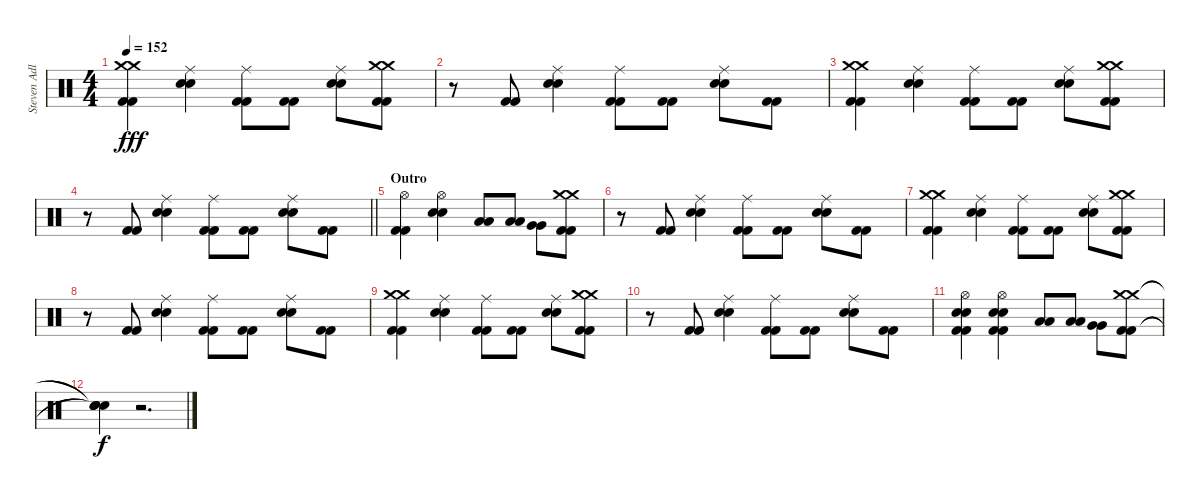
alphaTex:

\track ("Steven Adler" "Steven Adl") {instrument percussion}
\staff {score}
\articulation defaults
\ts (4 4)
\tempo 152
\clef neutral
\ks c
("Crash medium (hit)" "Crash medium (hit)" "Kick (hit) 2" "Kick (hit) 2").4{dy fff} ("Ride (middle)" "Electric Snare (hit)" "Electric Snare (hit)").4 ("Ride (middle)" "Kick (hit) 2" "Kick (hit) 2").8 ("Kick (hit) 2" "Kick (hit) 2").8 ("Ride (middle)" "Electric Snare (hit)" "Electric Snare (hit)").8 ("Crash medium (hit)" "Crash medium (hit)" "Kick (hit) 2" "Kick (hit) 2").8 |
r.8 ("Kick (hit) 2" "Kick (hit) 2").8 ("Ride (middle)" "Electric Snare (hit)" "Electric Snare (hit)").4 ("Ride (middle)" "Kick (hit) 2" "Kick (hit) 2").8 ("Kick (hit) 2" "Kick (hit) 2").8 ("Ride (middle)" "Electric Snare (hit)" "Electric Snare (hit)").8 ("Kick (hit) 2" "Kick (hit) 2").8 |
("Crash medium (hit)" "Crash medium (hit)" "Kick (hit) 2" "Kick (hit) 2").4 ("Ride (middle)" "Electric Snare (hit)" "Electric Snare (hit)").4 ("Ride (middle)" "Kick (hit) 2" "Kick (hit) 2").8 ("Kick (hit) 2" "Kick (hit) 2").8 ("Ride (middle)" "Electric Snare (hit)" "Electric Snare (hit)").8 ("Crash medium (hit)" "Crash medium (hit)" "Kick (hit) 2" "Kick (hit) 2").8 |
\barLineRight lightlight
r.8 ("Kick (hit) 2" "Kick (hit) 2").8 ("Ride (middle)" "Electric Snare (hit)" "Electric Snare (hit)").4 ("Ride (middle)" "Kick (hit) 2" "Kick (hit) 2").8 ("Kick (hit) 2" "Kick (hit) 2").8 ("Ride (middle)" "Electric Snare (hit)" "Electric Snare (hit)").8 ("Kick (hit) 2" "Kick (hit) 2").8 |
\section ("" "Outro")
("Hi-Hat (open)" "Kick (hit) 2" "Kick (hit) 2").4 ("Hi-Hat (open)" "Electric Snare (hit)" "Electric Snare (hit)").4 ("Low Tom (hit)" "Low Tom (hit)").8 ("Low Tom (hit)" "Low Tom (hit)").8 ("Very Low Tom (hit)" "Very Low Tom (hit)").8 ("Crash medium (hit)" "Crash medium (hit)" "Kick (hit) 2" "Kick (hit) 2").8 |
r.8 ("Kick (hit) 2" "Kick (hit) 2").8 ("Ride (middle)" "Electric Snare (hit)" "Electric Snare (hit)").4 ("Ride (middle)" "Kick (hit) 2" "Kick (hit) 2").8 ("Kick (hit) 2" "Kick (hit) 2").8 ("Ride (middle)" "Electric Snare (hit)" "Electric Snare (hit)").8 ("Kick (hit) 2" "Kick (hit) 2").8 |
("Crash medium (hit)" "Crash medium (hit)" "Kick (hit) 2" "Kick (hit) 2").4 ("Ride (middle)" "Electric Snare (hit)" "Electric Snare (hit)").4 ("Ride (middle)" "Kick (hit) 2" "Kick (hit) 2").8 ("Kick (hit) 2" "Kick (hit) 2").8 ("Ride (middle)" "Electric Snare (hit)" "Electric Snare (hit)").8 ("Crash medium (hit)" "Crash medium (hit)" "Kick (hit) 2" "Kick (hit) 2").8 |
r.8 ("Kick (hit) 2" "Kick (hit) 2").8 ("Ride (middle)" "Electric Snare (hit)" "Electric Snare (hit)").4 ("Ride (middle)" "Kick (hit) 2" "Kick (hit) 2").8 ("Kick (hit) 2" "Kick (hit) 2").8 ("Ride (middle)" "Electric Snare (hit)" "Electric Snare (hit)").8 ("Kick (hit) 2" "Kick (hit) 2").8 |
("Crash medium (hit)" "Crash medium (hit)" "Kick (hit) 2" "Kick (hit) 2").4 ("Ride (middle)" "Electric Snare (hit)" "Electric Snare (hit)").4 ("Ride (middle)" "Kick (hit) 2" "Kick (hit) 2").8 ("Kick (hit) 2" "Kick (hit) 2").8 ("Ride (middle)" "Electric Snare (hit)" "Electric Snare (hit)").8 ("Crash medium (hit)" "Crash medium (hit)" "Kick (hit) 2" "Kick (hit) 2").8 |
r.8 ("Kick (hit) 2" "Kick (hit) 2").8 ("Ride (middle)" "Electric Snare (hit)" "Electric Snare (hit)").4 ("Ride (middle)" "Kick (hit) 2" "Kick (hit) 2").8 ("Kick (hit) 2" "Kick (hit) 2").8 ("Ride (middle)" "Electric Snare (hit)" "Electric Snare (hit)").8 ("Kick (hit) 2" "Kick (hit) 2").8 |
("Hi-Hat (open)" "Electric Snare (hit)" "Electric Snare (hit)" "Kick (hit) 2" "Kick (hit) 2").4 ("Hi-Hat (open)" "Electric Snare (hit)" "Electric Snare (hit)" "Kick (hit) 2" "Kick (hit) 2").4 ("Low Tom (hit)" "Low Tom (hit)").8 ("Low Tom (hit)" "Low Tom (hit)").8 ("Very Low Tom (hit)" "Very Low Tom (hit)").8 ("Crash medium (hit)" "Crash medium (hit)" "Kick (hit) 2" "Kick (hit) 2").8 |
("Snare (hit)"{t} "Snare (hit)"{t} "Snare (hit)"{t} "Snare (hit)"{t}).4{dy f} r.2{d}
